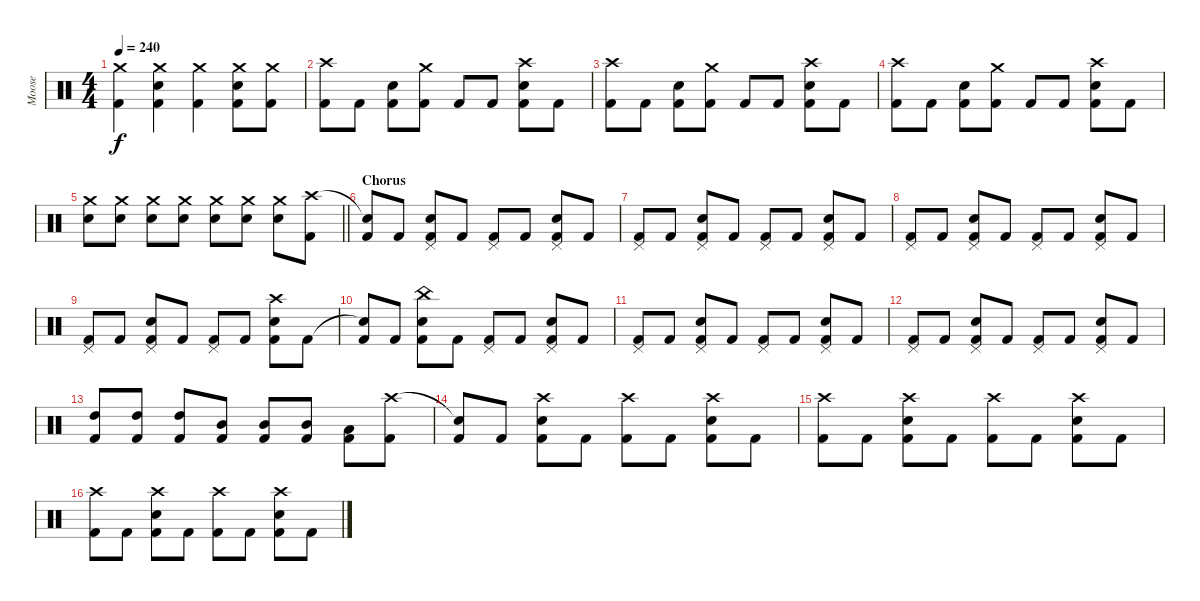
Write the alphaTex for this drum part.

\track ("Moose" "Moose") {instrument percussion}
\staff {score}
\articulation defaults
\ts (4 4)
\tempo 240
\clef neutral
\ks c
("Crash medium (hit)" "Kick (hit) 2").4{dy f} ("Crash medium (hit)" "Snare (hit) 2" "Kick (hit) 2").4 ("Crash medium (hit)" "Kick (hit) 2").4 ("Crash medium (hit)" "Snare (hit) 2" "Kick (hit) 2").8 ("Crash medium (hit)" "Kick (hit) 2").8 |
("Crash high (hit)" "Kick (hit) 2").8 "Kick (hit) 2".8 ("Snare (hit) 2" "Kick (hit) 2").8 ("Crash medium (hit)" "Kick (hit) 2").8 "Kick (hit) 2".8 "Kick (hit) 2".8 ("Crash high (hit)" "Snare (hit) 2" "Kick (hit) 2").8 "Kick (hit) 2".8 |
("Crash high (hit)" "Kick (hit) 2").8 "Kick (hit) 2".8 ("Snare (hit) 2" "Kick (hit) 2").8 ("Crash medium (hit)" "Kick (hit) 2").8 "Kick (hit) 2".8 "Kick (hit) 2".8 ("Crash high (hit)" "Snare (hit) 2" "Kick (hit) 2").8 "Kick (hit) 2".8 |
("Crash high (hit)" "Kick (hit) 2").8 "Kick (hit) 2".8 ("Snare (hit) 2" "Kick (hit) 2").8 ("Crash medium (hit)" "Kick (hit) 2").8 "Kick (hit) 2".8 "Kick (hit) 2".8 ("Crash high (hit)" "Snare (hit) 2" "Kick (hit) 2").8 "Kick (hit) 2".8 |
\barLineRight lightlight
("Crash medium (hit)" "Snare (hit) 2").8 ("Crash medium (hit)" "Snare (hit) 2").8 ("Crash medium (hit)" "Snare (hit) 2").8 ("Crash medium (hit)" "Snare (hit) 2").8 ("Crash medium (hit)" "Snare (hit) 2").8 ("Crash medium (hit)" "Snare (hit) 2").8 ("Crash medium (hit)" "Snare (hit) 2").8 ("Crash high (hit)" "Kick (hit) 2").8 |
\section ("" "Chorus")
("Snare (hit)"{t} "Kick (hit) 2").8 "Kick (hit) 2".8 ("Pedal Hi-Hat (hit)" "Snare (hit) 2" "Kick (hit) 2").8 "Kick (hit) 2".8 ("Pedal Hi-Hat (hit)" "Kick (hit) 2").8 "Kick (hit) 2".8 ("Pedal Hi-Hat (hit)" "Snare (hit) 2" "Kick (hit) 2").8 "Kick (hit) 2".8 |
("Pedal Hi-Hat (hit)" "Kick (hit) 2").8 "Kick (hit) 2".8 ("Pedal Hi-Hat (hit)" "Snare (hit) 2" "Kick (hit) 2").8 "Kick (hit) 2".8 ("Pedal Hi-Hat (hit)" "Kick (hit) 2").8 "Kick (hit) 2".8 ("Pedal Hi-Hat (hit)" "Snare (hit) 2" "Kick (hit) 2").8 "Kick (hit) 2".8 |
("Pedal Hi-Hat (hit)" "Kick (hit) 2").8 "Kick (hit) 2".8 ("Pedal Hi-Hat (hit)" "Snare (hit) 2" "Kick (hit) 2").8 "Kick (hit) 2".8 ("Pedal Hi-Hat (hit)" "Kick (hit) 2").8 "Kick (hit) 2".8 ("Pedal Hi-Hat (hit)" "Snare (hit) 2" "Kick (hit) 2").8 "Kick (hit) 2".8 |
("Pedal Hi-Hat (hit)" "Kick (hit) 2").8 "Kick (hit) 2".8 ("Pedal Hi-Hat (hit)" "Snare (hit) 2" "Kick (hit) 2").8 "Kick (hit) 2".8 ("Pedal Hi-Hat (hit)" "Kick (hit) 2").8 "Kick (hit) 2".8 ("Crash high (hit)" "Snare (hit) 2" "Kick (hit) 2").8 "Kick (hit) 2".8 |
("Snare (hit)"{t} "Kick (hit) 2").8 "Kick (hit) 2".8 ("China (hit)" "Snare (hit) 2" "Kick (hit) 2").8 "Kick (hit) 2".8 ("Pedal Hi-Hat (hit)" "Kick (hit) 2").8 "Kick (hit) 2".8 ("Pedal Hi-Hat (hit)" "Snare (hit) 2" "Kick (hit) 2").8 "Kick (hit) 2".8 |
("Pedal Hi-Hat (hit)" "Kick (hit) 2").8 "Kick (hit) 2".8 ("Pedal Hi-Hat (hit)" "Snare (hit) 2" "Kick (hit) 2").8 "Kick (hit) 2".8 ("Pedal Hi-Hat (hit)" "Kick (hit) 2").8 "Kick (hit) 2".8 ("Pedal Hi-Hat (hit)" "Snare (hit) 2" "Kick (hit) 2").8 "Kick (hit) 2".8 |
("Pedal Hi-Hat (hit)" "Kick (hit) 2").8 "Kick (hit) 2".8 ("Pedal Hi-Hat (hit)" "Snare (hit) 2" "Kick (hit) 2").8 "Kick (hit) 2".8 ("Pedal Hi-Hat (hit)" "Kick (hit) 2").8 "Kick (hit) 2".8 ("Pedal Hi-Hat (hit)" "Snare (hit) 2" "Kick (hit) 2").8 "Kick (hit) 2".8 |
("High Tom (hit)" "Kick (hit) 2").8 ("High Tom (hit)" "Kick (hit) 2").8 ("High Tom (hit)" "Kick (hit) 2").8 ("Mid Tom (hit)" "Kick (hit) 2").8 ("Mid Tom (hit)" "Kick (hit) 2").8 ("Mid Tom (hit)" "Kick (hit) 2").8 ("Low Tom (hit)" "Kick (hit) 2").8 ("Crash high (hit)" "Kick (hit) 2").8 |
("Snare (hit)"{t} "Kick (hit) 2").8 "Kick (hit) 2".8 ("Crash high (hit)" "Snare (hit) 2" "Kick (hit) 2").8 "Kick (hit) 2".8 ("Crash high (hit)" "Kick (hit) 2").8 "Kick (hit) 2".8 ("Crash high (hit)" "Snare (hit) 2" "Kick (hit) 2").8 "Kick (hit) 2".8 |
("Crash high (hit)" "Kick (hit) 2").8 "Kick (hit) 2".8 ("Crash high (hit)" "Snare (hit) 2" "Kick (hit) 2").8 "Kick (hit) 2".8 ("Crash high (hit)" "Kick (hit) 2").8 "Kick (hit) 2".8 ("Crash high (hit)" "Snare (hit) 2" "Kick (hit) 2").8 "Kick (hit) 2".8 |
("Crash high (hit)" "Kick (hit) 2").8 "Kick (hit) 2".8 ("Crash high (hit)" "Snare (hit) 2" "Kick (hit) 2").8 "Kick (hit) 2".8 ("Crash high (hit)" "Kick (hit) 2").8 "Kick (hit) 2".8 ("Crash high (hit)" "Snare (hit) 2" "Kick (hit) 2").8 "Kick (hit) 2".8
